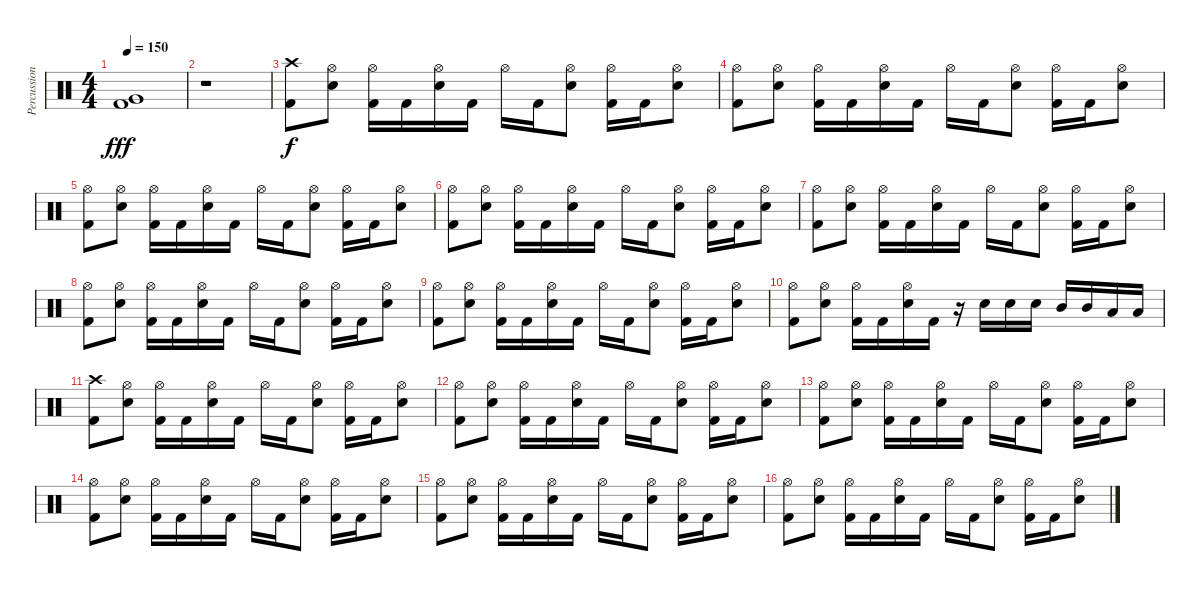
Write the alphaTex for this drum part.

\track ("Percussions" "Percussion") {instrument percussion}
\staff {score}
\articulation defaults
\ts (4 4)
\tempo 150
\clef neutral
\ks c
("Very Low Tom (hit)" "Kick (hit) 2").1{dy fff} |
r.1 |
("Crash high (hit)" "Kick (hit) 2").8{dy f} ("Hi-Hat (open)" "Snare (hit) 2").8 ("Hi-Hat (open)" "Kick (hit) 2").16 "Kick (hit) 2".16 ("Hi-Hat (open)" "Snare (hit) 2").16 "Kick (hit) 2".16 "Hi-Hat (open)".16 "Kick (hit) 2".16 ("Hi-Hat (open)" "Snare (hit) 2").8 ("Hi-Hat (open)" "Kick (hit) 2").16 "Kick (hit) 2".16 ("Hi-Hat (open)" "Snare (hit) 2").8 |
("Hi-Hat (open)" "Kick (hit) 2").8 ("Hi-Hat (open)" "Snare (hit) 2").8 ("Hi-Hat (open)" "Kick (hit) 2").16 "Kick (hit) 2".16 ("Hi-Hat (open)" "Snare (hit) 2").16 "Kick (hit) 2".16 "Hi-Hat (open)".16 "Kick (hit) 2".16 ("Hi-Hat (open)" "Snare (hit) 2").8 ("Hi-Hat (open)" "Kick (hit) 2").16 "Kick (hit) 2".16 ("Hi-Hat (open)" "Snare (hit) 2").8 |
("Hi-Hat (open)" "Kick (hit) 2").8 ("Hi-Hat (open)" "Snare (hit) 2").8 ("Hi-Hat (open)" "Kick (hit) 2").16 "Kick (hit) 2".16 ("Hi-Hat (open)" "Snare (hit) 2").16 "Kick (hit) 2".16 "Hi-Hat (open)".16 "Kick (hit) 2".16 ("Hi-Hat (open)" "Snare (hit) 2").8 ("Hi-Hat (open)" "Kick (hit) 2").16 "Kick (hit) 2".16 ("Hi-Hat (open)" "Snare (hit) 2").8 |
("Hi-Hat (open)" "Kick (hit) 2").8 ("Hi-Hat (open)" "Snare (hit) 2").8 ("Hi-Hat (open)" "Kick (hit) 2").16 "Kick (hit) 2".16 ("Hi-Hat (open)" "Snare (hit) 2").16 "Kick (hit) 2".16 "Hi-Hat (open)".16 "Kick (hit) 2".16 ("Hi-Hat (open)" "Snare (hit) 2").8 ("Hi-Hat (open)" "Kick (hit) 2").16 "Kick (hit) 2".16 ("Hi-Hat (open)" "Snare (hit) 2").8 |
("Hi-Hat (open)" "Kick (hit) 2").8 ("Hi-Hat (open)" "Snare (hit) 2").8 ("Hi-Hat (open)" "Kick (hit) 2").16 "Kick (hit) 2".16 ("Hi-Hat (open)" "Snare (hit) 2").16 "Kick (hit) 2".16 "Hi-Hat (open)".16 "Kick (hit) 2".16 ("Hi-Hat (open)" "Snare (hit) 2").8 ("Hi-Hat (open)" "Kick (hit) 2").16 "Kick (hit) 2".16 ("Hi-Hat (open)" "Snare (hit) 2").8 |
("Hi-Hat (open)" "Kick (hit) 2").8 ("Hi-Hat (open)" "Snare (hit) 2").8 ("Hi-Hat (open)" "Kick (hit) 2").16 "Kick (hit) 2".16 ("Hi-Hat (open)" "Snare (hit) 2").16 "Kick (hit) 2".16 "Hi-Hat (open)".16 "Kick (hit) 2".16 ("Hi-Hat (open)" "Snare (hit) 2").8 ("Hi-Hat (open)" "Kick (hit) 2").16 "Kick (hit) 2".16 ("Hi-Hat (open)" "Snare (hit) 2").8 |
("Hi-Hat (open)" "Kick (hit) 2").8 ("Hi-Hat (open)" "Snare (hit) 2").8 ("Hi-Hat (open)" "Kick (hit) 2").16 "Kick (hit) 2".16 ("Hi-Hat (open)" "Snare (hit) 2").16 "Kick (hit) 2".16 "Hi-Hat (open)".16 "Kick (hit) 2".16 ("Hi-Hat (open)" "Snare (hit) 2").8 ("Hi-Hat (open)" "Kick (hit) 2").16 "Kick (hit) 2".16 ("Hi-Hat (open)" "Snare (hit) 2").8 |
("Hi-Hat (open)" "Kick (hit) 2").8 ("Hi-Hat (open)" "Snare (hit) 2").8 ("Hi-Hat (open)" "Kick (hit) 2").16 "Kick (hit) 2".16 ("Hi-Hat (open)" "Snare (hit) 2").16 "Kick (hit) 2".16 r.16 "Snare (hit) 2".16 "Snare (hit) 2".16 "Snare (hit) 2".16 "Mid Tom (hit)".16 "Mid Tom (hit)".16 "Low Tom (hit)".16 "Low Tom (hit)".16 |
("Crash high (hit)" "Kick (hit) 2").8 ("Hi-Hat (open)" "Snare (hit) 2").8 ("Hi-Hat (open)" "Kick (hit) 2").16 "Kick (hit) 2".16 ("Hi-Hat (open)" "Snare (hit) 2").16 "Kick (hit) 2".16 "Hi-Hat (open)".16 "Kick (hit) 2".16 ("Hi-Hat (open)" "Snare (hit) 2").8 ("Hi-Hat (open)" "Kick (hit) 2").16 "Kick (hit) 2".16 ("Hi-Hat (open)" "Snare (hit) 2").8 |
("Hi-Hat (open)" "Kick (hit) 2").8 ("Hi-Hat (open)" "Snare (hit) 2").8 ("Hi-Hat (open)" "Kick (hit) 2").16 "Kick (hit) 2".16 ("Hi-Hat (open)" "Snare (hit) 2").16 "Kick (hit) 2".16 "Hi-Hat (open)".16 "Kick (hit) 2".16 ("Hi-Hat (open)" "Snare (hit) 2").8 ("Hi-Hat (open)" "Kick (hit) 2").16 "Kick (hit) 2".16 ("Hi-Hat (open)" "Snare (hit) 2").8 |
("Hi-Hat (open)" "Kick (hit) 2").8 ("Hi-Hat (open)" "Snare (hit) 2").8 ("Hi-Hat (open)" "Kick (hit) 2").16 "Kick (hit) 2".16 ("Hi-Hat (open)" "Snare (hit) 2").16 "Kick (hit) 2".16 "Hi-Hat (open)".16 "Kick (hit) 2".16 ("Hi-Hat (open)" "Snare (hit) 2").8 ("Hi-Hat (open)" "Kick (hit) 2").16 "Kick (hit) 2".16 ("Hi-Hat (open)" "Snare (hit) 2").8 |
("Hi-Hat (open)" "Kick (hit) 2").8 ("Hi-Hat (open)" "Snare (hit) 2").8 ("Hi-Hat (open)" "Kick (hit) 2").16 "Kick (hit) 2".16 ("Hi-Hat (open)" "Snare (hit) 2").16 "Kick (hit) 2".16 "Hi-Hat (open)".16 "Kick (hit) 2".16 ("Hi-Hat (open)" "Snare (hit) 2").8 ("Hi-Hat (open)" "Kick (hit) 2").16 "Kick (hit) 2".16 ("Hi-Hat (open)" "Snare (hit) 2").8 |
("Hi-Hat (open)" "Kick (hit) 2").8 ("Hi-Hat (open)" "Snare (hit) 2").8 ("Hi-Hat (open)" "Kick (hit) 2").16 "Kick (hit) 2".16 ("Hi-Hat (open)" "Snare (hit) 2").16 "Kick (hit) 2".16 "Hi-Hat (open)".16 "Kick (hit) 2".16 ("Hi-Hat (open)" "Snare (hit) 2").8 ("Hi-Hat (open)" "Kick (hit) 2").16 "Kick (hit) 2".16 ("Hi-Hat (open)" "Snare (hit) 2").8 |
("Hi-Hat (open)" "Kick (hit) 2").8 ("Hi-Hat (open)" "Snare (hit) 2").8 ("Hi-Hat (open)" "Kick (hit) 2").16 "Kick (hit) 2".16 ("Hi-Hat (open)" "Snare (hit) 2").16 "Kick (hit) 2".16 "Hi-Hat (open)".16 "Kick (hit) 2".16 ("Hi-Hat (open)" "Snare (hit) 2").8 ("Hi-Hat (open)" "Kick (hit) 2").16 "Kick (hit) 2".16 ("Hi-Hat (open)" "Snare (hit) 2").8
